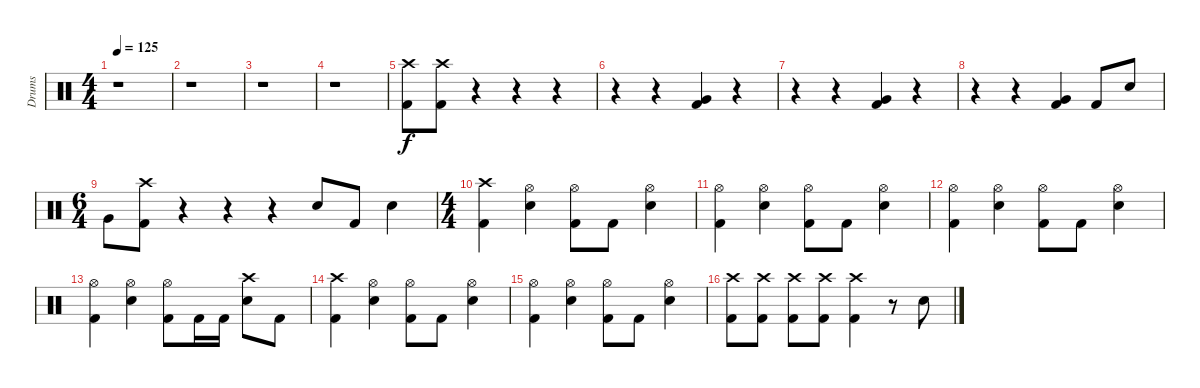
\track ("Drums" "Drums") {instrument percussion}
\staff {score}
\articulation defaults
\ts (4 4)
\tempo 125
\clef neutral
\ks c
r.1{dy f} |
r.1 |
r.1 |
r.1 |
("Crash high (hit)" "Kick (hit) 2").8 ("Crash high (hit)" "Kick (hit) 2").8 r.4 r.4 r.4 |
r.4 r.4 ("Very Low Tom (hit)" "Kick (hit) 2").4 r.4 |
r.4 r.4 ("Very Low Tom (hit)" "Kick (hit) 2").4 r.4 |
r.4 r.4 ("Very Low Tom (hit)" "Kick (hit) 2").4 "Kick (hit) 2".8 "Electric Snare (hit)".8 |
\ts (6 4)
"Very Low Tom (hit)".8 ("Crash high (hit)" "Kick (hit) 2").8 r.4 r.4 r.4 "Electric Snare (hit)".8 "Kick (hit) 2".8 "Electric Snare (hit)".4 |
\ts (4 4)
("Crash high (hit)" "Kick (hit) 2").4 ("Hi-Hat (open)" "Electric Snare (hit)").4 ("Hi-Hat (open)" "Kick (hit) 2").8 "Kick (hit) 2".8 ("Hi-Hat (open)" "Electric Snare (hit)").4 |
("Hi-Hat (open)" "Kick (hit) 2").4 ("Hi-Hat (open)" "Electric Snare (hit)").4 ("Hi-Hat (open)" "Kick (hit) 2").8 "Kick (hit) 2".8 ("Hi-Hat (open)" "Electric Snare (hit)").4 |
("Hi-Hat (open)" "Kick (hit) 2").4 ("Hi-Hat (open)" "Electric Snare (hit)").4 ("Hi-Hat (open)" "Kick (hit) 2").8 "Kick (hit) 2".8 ("Hi-Hat (open)" "Electric Snare (hit)").4 |
("Hi-Hat (open)" "Kick (hit) 2").4 ("Hi-Hat (open)" "Electric Snare (hit)").4 ("Hi-Hat (open)" "Kick (hit) 2").8 "Kick (hit) 2".16 "Kick (hit) 2".16 ("Crash high (hit)" "Electric Snare (hit)").8 "Kick (hit) 2".8 |
("Crash high (hit)" "Kick (hit) 2").4 ("Hi-Hat (open)" "Electric Snare (hit)").4 ("Hi-Hat (open)" "Kick (hit) 2").8 "Kick (hit) 2".8 ("Hi-Hat (open)" "Electric Snare (hit)").4 |
("Hi-Hat (open)" "Kick (hit) 2").4 ("Hi-Hat (open)" "Electric Snare (hit)").4 ("Hi-Hat (open)" "Kick (hit) 2").8 "Kick (hit) 2".8 ("Hi-Hat (open)" "Electric Snare (hit)").4 |
("Crash high (hit)" "Kick (hit) 2").8 ("Crash high (hit)" "Kick (hit) 2").8 ("Crash high (hit)" "Kick (hit) 2").8 ("Crash high (hit)" "Kick (hit) 2").8 ("Crash high (hit)" "Kick (hit) 2").4 r.8 "Electric Snare (hit)".8
